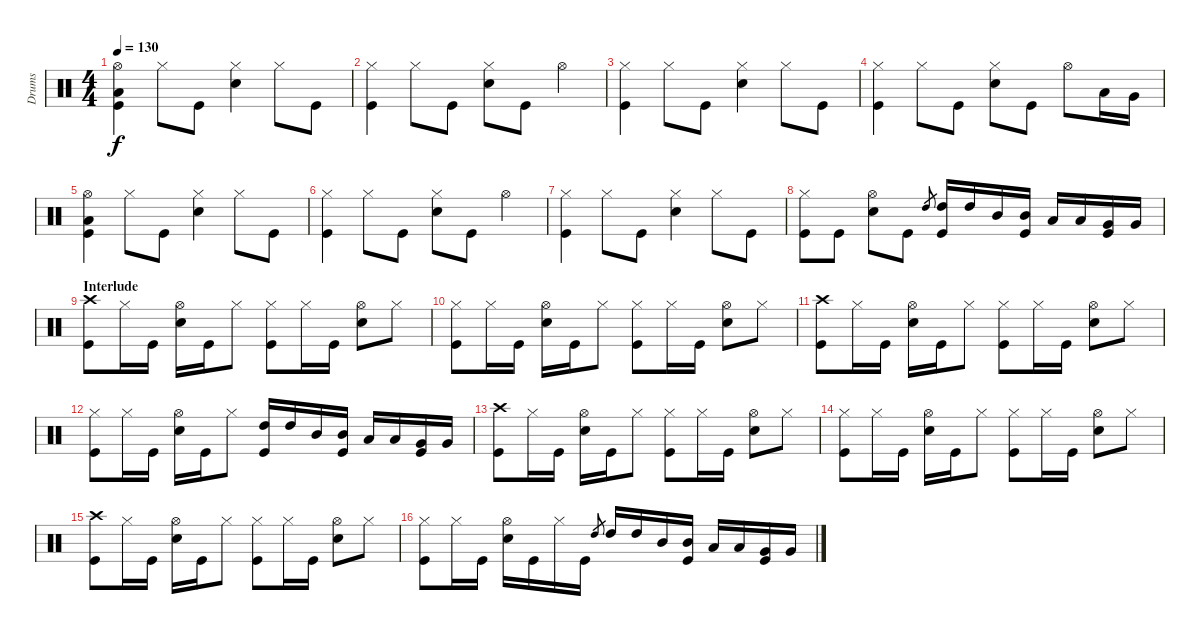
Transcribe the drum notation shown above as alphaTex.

\track ("Drums" "Drums") {instrument percussion}
\staff {score}
\articulation defaults
\ts (4 4)
\tempo 130
\clef neutral
\ks c
("Hi-Hat (open)" "Low Floor Tom (hit)" "Kick (hit)").4{dy f} "Hi-Hat (closed)".8 "Kick (hit)".8 ("Hi-Hat (closed)" "Snare (hit) 2").4 "Hi-Hat (closed)".8 "Kick (hit)".8 |
("Hi-Hat (closed)" "Kick (hit)").4 "Hi-Hat (closed)".8 "Kick (hit)".8 ("Hi-Hat (closed)" "Snare (hit) 2").8 "Kick (hit)".8 "Hi-Hat (open)".4 |
("Hi-Hat (closed)" "Kick (hit)").4 "Hi-Hat (closed)".8 "Kick (hit)".8 ("Hi-Hat (closed)" "Snare (hit) 2").4 "Hi-Hat (closed)".8 "Kick (hit)".8 |
("Hi-Hat (closed)" "Kick (hit)").4 "Hi-Hat (closed)".8 "Kick (hit)".8 ("Hi-Hat (closed)" "Snare (hit) 2").8 "Kick (hit)".8 "Hi-Hat (open)".8 "Low Tom (hit)".16 "Very Low Tom (hit)".16 |
("Hi-Hat (open)" "Low Floor Tom (hit)" "Kick (hit)").4 "Hi-Hat (closed)".8 "Kick (hit)".8 ("Hi-Hat (closed)" "Snare (hit) 2").4 "Hi-Hat (closed)".8 "Kick (hit)".8 |
("Hi-Hat (closed)" "Kick (hit)").4 "Hi-Hat (closed)".8 "Kick (hit)".8 ("Hi-Hat (closed)" "Snare (hit) 2").8 "Kick (hit)".8 "Hi-Hat (open)".4 |
("Hi-Hat (closed)" "Kick (hit)").4 "Hi-Hat (closed)".8 "Kick (hit)".8 ("Hi-Hat (closed)" "Snare (hit) 2").4 "Hi-Hat (closed)".8 "Kick (hit)".8 |
("Hi-Hat (closed)" "Kick (hit)").8 "Kick (hit)".8 ("Hi-Hat (open)" "Snare (hit) 2").8 "Kick (hit)".8 "High Tom (hit)".8{gr} ("High Tom (hit)" "Kick (hit)").16 "High Tom (hit)".16 "Mid Tom (hit)".16 ("Mid Tom (hit)" "Kick (hit)").16 "Low Tom (hit)".16 "Low Tom (hit)".16 ("Very Low Tom (hit)" "Kick (hit)").16 "Very Low Tom (hit)".16 |
\section ("" "Interlude")
("Crash high (hit)" "Kick (hit)").8 "Hi-Hat (closed)".16 "Kick (hit)".16 ("Hi-Hat (open)" "Snare (hit) 2").16 "Kick (hit)".16 "Hi-Hat (closed)".8 ("Hi-Hat (closed)" "Kick (hit)").8 "Hi-Hat (closed)".16 "Kick (hit)".16 ("Hi-Hat (open)" "Snare (hit) 2").8 "Hi-Hat (closed)".8 |
("Hi-Hat (closed)" "Kick (hit)").8 "Hi-Hat (closed)".16 "Kick (hit)".16 ("Hi-Hat (open)" "Snare (hit) 2").16 "Kick (hit)".16 "Hi-Hat (closed)".8 ("Hi-Hat (closed)" "Kick (hit)").8 "Hi-Hat (closed)".16 "Kick (hit)".16 ("Hi-Hat (open)" "Snare (hit) 2").8 "Hi-Hat (closed)".8 |
("Crash high (hit)" "Kick (hit)").8 "Hi-Hat (closed)".16 "Kick (hit)".16 ("Hi-Hat (open)" "Snare (hit) 2").16 "Kick (hit)".16 "Hi-Hat (closed)".8 ("Hi-Hat (closed)" "Kick (hit)").8 "Hi-Hat (closed)".16 "Kick (hit)".16 ("Hi-Hat (open)" "Snare (hit) 2").8 "Hi-Hat (closed)".8 |
("Hi-Hat (closed)" "Kick (hit)").8 "Hi-Hat (closed)".16 "Kick (hit)".16 ("Hi-Hat (open)" "Snare (hit) 2").16 "Kick (hit)".16 "Hi-Hat (closed)".8 ("High Tom (hit)" "Kick (hit)").16 "High Tom (hit)".16 "Mid Tom (hit)".16 ("Mid Tom (hit)" "Kick (hit)").16 "Low Tom (hit)".16 "Low Tom (hit)".16 ("Very Low Tom (hit)" "Kick (hit)").16 "Very Low Tom (hit)".16 |
("Crash high (hit)" "Kick (hit)").8 "Hi-Hat (closed)".16 "Kick (hit)".16 ("Hi-Hat (open)" "Snare (hit) 2").16 "Kick (hit)".16 "Hi-Hat (closed)".8 ("Hi-Hat (closed)" "Kick (hit)").8 "Hi-Hat (closed)".16 "Kick (hit)".16 ("Hi-Hat (open)" "Snare (hit) 2").8 "Hi-Hat (closed)".8 |
("Hi-Hat (closed)" "Kick (hit)").8 "Hi-Hat (closed)".16 "Kick (hit)".16 ("Hi-Hat (open)" "Snare (hit) 2").16 "Kick (hit)".16 "Hi-Hat (closed)".8 ("Hi-Hat (closed)" "Kick (hit)").8 "Hi-Hat (closed)".16 "Kick (hit)".16 ("Hi-Hat (open)" "Snare (hit) 2").8 "Hi-Hat (closed)".8 |
("Crash high (hit)" "Kick (hit)").8 "Hi-Hat (closed)".16 "Kick (hit)".16 ("Hi-Hat (open)" "Snare (hit) 2").16 "Kick (hit)".16 "Hi-Hat (closed)".8 ("Hi-Hat (closed)" "Kick (hit)").8 "Hi-Hat (closed)".16 "Kick (hit)".16 ("Hi-Hat (open)" "Snare (hit) 2").8 "Hi-Hat (closed)".8 |
("Hi-Hat (closed)" "Kick (hit)").8 "Hi-Hat (closed)".16 "Kick (hit)".16 ("Hi-Hat (open)" "Snare (hit) 2").16 "Kick (hit)".16 "Hi-Hat (closed)".16 "Kick (hit)".16 "High Tom (hit)".8{gr} "High Tom (hit)".16 "High Tom (hit)".16 "Mid Tom (hit)".16 ("Mid Tom (hit)" "Kick (hit)").16 "Low Tom (hit)".16 "Low Tom (hit)".16 ("Very Low Tom (hit)" "Kick (hit)").16 "Very Low Tom (hit)".16
